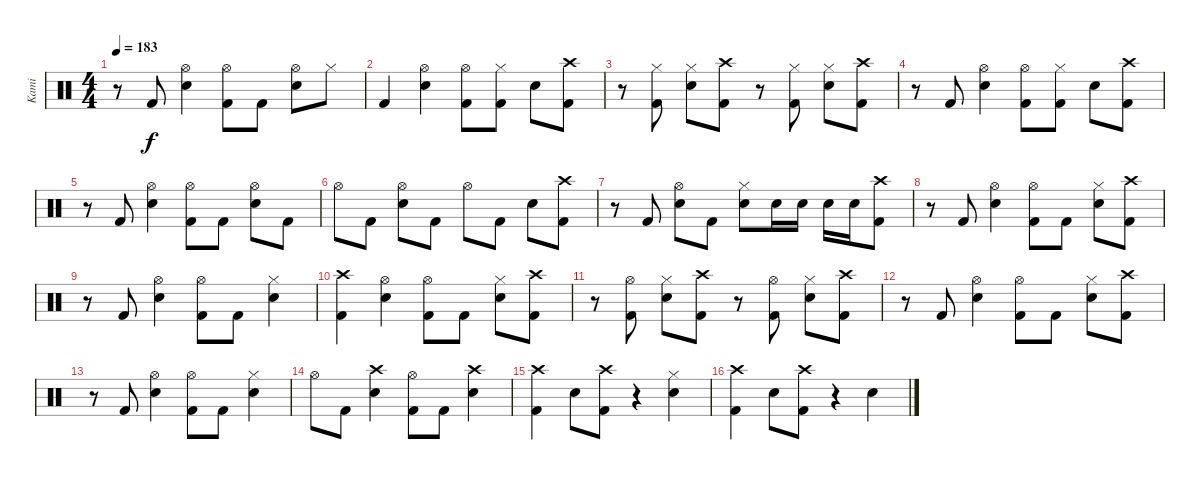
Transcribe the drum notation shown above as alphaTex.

\track ("Kami" "Kami") {instrument percussion}
\staff {score}
\articulation defaults
\ts (4 4)
\tempo 183
\clef neutral
\ks c
r.8{dy f} "Kick (hit) 2".8 ("Hi-Hat (open)" "Electric Snare (hit)").4 ("Hi-Hat (open)" "Kick (hit) 2").8 "Kick (hit) 2".8 ("Hi-Hat (open)" "Electric Snare (hit)").8 "Hi-Hat (closed)".8 |
"Kick (hit) 2".4 ("Hi-Hat (open)" "Electric Snare (hit)").4 ("Hi-Hat (open)" "Kick (hit) 2").8 ("Hi-Hat (closed)" "Kick (hit) 2").8 "Electric Snare (hit)".8 ("Crash high (hit)" "Kick (hit) 2").8 |
r.8 ("Hi-Hat (closed)" "Kick (hit) 2").8 ("Hi-Hat (closed)" "Electric Snare (hit)").8 ("Crash high (hit)" "Kick (hit) 2").8 r.8 ("Hi-Hat (closed)" "Kick (hit) 2").8 ("Hi-Hat (closed)" "Electric Snare (hit)").8 ("Crash high (hit)" "Kick (hit) 2").8 |
r.8 "Kick (hit) 2".8 ("Hi-Hat (open)" "Electric Snare (hit)").4 ("Hi-Hat (open)" "Kick (hit) 2").8 ("Hi-Hat (closed)" "Kick (hit) 2").8 "Electric Snare (hit)".8 ("Crash high (hit)" "Kick (hit) 2").8 |
r.8 "Kick (hit) 2".8 ("Hi-Hat (open)" "Electric Snare (hit)").4 ("Hi-Hat (open)" "Kick (hit) 2").8 "Kick (hit) 2".8 ("Hi-Hat (open)" "Electric Snare (hit)").8 "Kick (hit) 2".8 |
"Hi-Hat (open)".8 "Kick (hit) 2".8 ("Hi-Hat (open)" "Electric Snare (hit)").8 "Kick (hit) 2".8 "Hi-Hat (open)".8 "Kick (hit) 2".8 "Electric Snare (hit)".8 ("Crash high (hit)" "Kick (hit) 2").8 |
r.8 "Kick (hit) 2".8 ("Hi-Hat (open)" "Electric Snare (hit)").8 "Kick (hit) 2".8 ("Hi-Hat (closed)" "Electric Snare (hit)").8 "Electric Snare (hit)".16 "Electric Snare (hit)".16 "Electric Snare (hit)".16 "Electric Snare (hit)".16 ("Crash high (hit)" "Kick (hit) 2").8 |
r.8 "Kick (hit) 2".8 ("Hi-Hat (open)" "Electric Snare (hit)").4 ("Hi-Hat (open)" "Kick (hit) 2").8 "Kick (hit) 2".8 ("Hi-Hat (closed)" "Electric Snare (hit)").8 ("Crash high (hit)" "Kick (hit) 2").8 |
r.8 "Kick (hit) 2".8 ("Hi-Hat (open)" "Electric Snare (hit)").4 ("Hi-Hat (open)" "Kick (hit) 2").8 "Kick (hit) 2".8 ("Hi-Hat (closed)" "Electric Snare (hit)").4 |
("Crash high (hit)" "Kick (hit) 2").4 ("Hi-Hat (open)" "Electric Snare (hit)").4 ("Hi-Hat (open)" "Kick (hit) 2").8 "Kick (hit) 2".8 ("Hi-Hat (closed)" "Electric Snare (hit)").8 ("Crash high (hit)" "Kick (hit) 2").8 |
r.8 ("Hi-Hat (open)" "Kick (hit) 2").8 ("Hi-Hat (closed)" "Electric Snare (hit)").8 ("Crash high (hit)" "Kick (hit) 2").8 r.8 ("Hi-Hat (open)" "Kick (hit) 2").8 ("Hi-Hat (closed)" "Electric Snare (hit)").8 ("Crash high (hit)" "Kick (hit) 2").8 |
r.8 "Kick (hit) 2".8 ("Hi-Hat (open)" "Electric Snare (hit)").4 ("Hi-Hat (open)" "Kick (hit) 2").8 "Kick (hit) 2".8 ("Hi-Hat (closed)" "Electric Snare (hit)").8 ("Crash high (hit)" "Kick (hit) 2").8 |
r.8 "Kick (hit) 2".8 ("Hi-Hat (open)" "Electric Snare (hit)").4 ("Hi-Hat (open)" "Kick (hit) 2").8 "Kick (hit) 2".8 ("Hi-Hat (closed)" "Electric Snare (hit)").4 |
"Hi-Hat (open)".8 "Kick (hit) 2".8 ("Crash high (hit)" "Electric Snare (hit)").4 ("Hi-Hat (open)" "Kick (hit) 2").8 "Kick (hit) 2".8 ("Crash high (hit)" "Electric Snare (hit)").4 |
("Crash high (hit)" "Kick (hit) 2").4 "Electric Snare (hit)".8 ("Crash high (hit)" "Kick (hit) 2").8 r.4 ("Hi-Hat (closed)" "Electric Snare (hit)").4 |
("Crash high (hit)" "Kick (hit) 2").4 "Electric Snare (hit)".8 ("Crash high (hit)" "Kick (hit) 2").8 r.4 "Electric Snare (hit)".4
